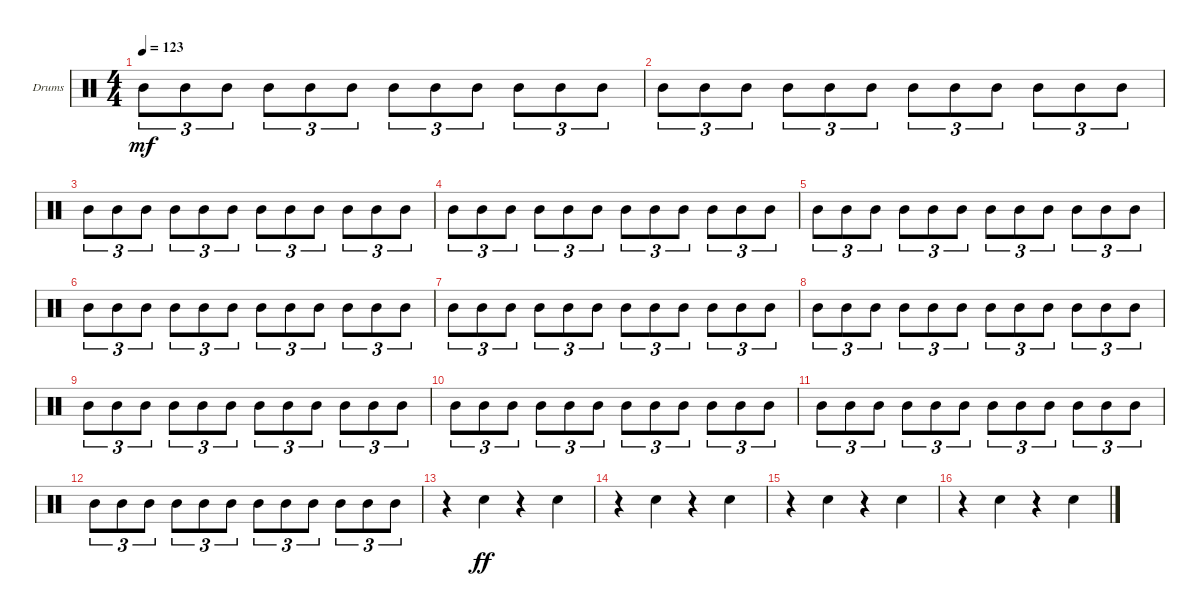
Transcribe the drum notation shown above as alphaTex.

\defaultSystemsLayout 4
\bracketExtendMode groupsimilarinstruments
\firstSystemTrackNameOrientation horizontal
\otherSystemsTrackNameOrientation horizontal
\track ("Drumkit" "Drums") {instrument percussion}
\staff {score}
\articulation defaults
\ts (4 4)
\tempo 123
\clef neutral
\scale
0.333333
\ks c "Mid Tom (hit)".8{tu (3 2) dy mf} "Mid Tom (hit)".8{tu (3 2)} "Mid Tom (hit)".8{tu (3 2)} "Mid Tom (hit)".8{tu (3 2)} "Mid Tom (hit)".8{tu (3 2)} "Mid Tom (hit)".8{tu (3 2)} "Mid Tom (hit)".8{tu (3 2)} "Mid Tom (hit)".8{tu (3 2)} "Mid Tom (hit)".8{tu (3 2)} "Mid Tom (hit)".8{tu (3 2)} "Mid Tom (hit)".8{tu (3 2)} "Mid Tom (hit)".8{tu (3 2)}
|
\scale
0.333333 "Mid Tom (hit)".8{tu (3 2)} "Mid Tom (hit)".8{tu (3 2)} "Mid Tom (hit)".8{tu (3 2)} "Mid Tom (hit)".8{tu (3 2)} "Mid Tom (hit)".8{tu (3 2)} "Mid Tom (hit)".8{tu (3 2)} "Mid Tom (hit)".8{tu (3 2)} "Mid Tom (hit)".8{tu (3 2)} "Mid Tom (hit)".8{tu (3 2)} "Mid Tom (hit)".8{tu (3 2)} "Mid Tom (hit)".8{tu (3 2)} "Mid Tom (hit)".8{tu (3 2)} |
\scale
0.333333 "Mid Tom (hit)".8{tu (3 2)} "Mid Tom (hit)".8{tu (3 2)} "Mid Tom (hit)".8{tu (3 2)} "Mid Tom (hit)".8{tu (3 2)} "Mid Tom (hit)".8{tu (3 2)} "Mid Tom (hit)".8{tu (3 2)} "Mid Tom (hit)".8{tu (3 2)} "Mid Tom (hit)".8{tu (3 2)} "Mid Tom (hit)".8{tu (3 2)} "Mid Tom (hit)".8{tu (3 2)} "Mid Tom (hit)".8{tu (3 2)} "Mid Tom (hit)".8{tu (3 2)} |
\scale
0.333333 "Mid Tom (hit)".8{tu (3 2)} "Mid Tom (hit)".8{tu (3 2)} "Mid Tom (hit)".8{tu (3 2)} "Mid Tom (hit)".8{tu (3 2)} "Mid Tom (hit)".8{tu (3 2)} "Mid Tom (hit)".8{tu (3 2)} "Mid Tom (hit)".8{tu (3 2)} "Mid Tom (hit)".8{tu (3 2)} "Mid Tom (hit)".8{tu (3 2)} "Mid Tom (hit)".8{tu (3 2)} "Mid Tom (hit)".8{tu (3 2)} "Mid Tom (hit)".8{tu (3 2)} |
\scale
0.333333 "Mid Tom (hit)".8{tu (3 2)} "Mid Tom (hit)".8{tu (3 2)} "Mid Tom (hit)".8{tu (3 2)} "Mid Tom (hit)".8{tu (3 2)} "Mid Tom (hit)".8{tu (3 2)} "Mid Tom (hit)".8{tu (3 2)} "Mid Tom (hit)".8{tu (3 2)} "Mid Tom (hit)".8{tu (3 2)} "Mid Tom (hit)".8{tu (3 2)} "Mid Tom (hit)".8{tu (3 2)} "Mid Tom (hit)".8{tu (3 2)} "Mid Tom (hit)".8{tu (3 2)} |
\scale
0.333333 "Mid Tom (hit)".8{tu (3 2)} "Mid Tom (hit)".8{tu (3 2)} "Mid Tom (hit)".8{tu (3 2)} "Mid Tom (hit)".8{tu (3 2)} "Mid Tom (hit)".8{tu (3 2)} "Mid Tom (hit)".8{tu (3 2)} "Mid Tom (hit)".8{tu (3 2)} "Mid Tom (hit)".8{tu (3 2)} "Mid Tom (hit)".8{tu (3 2)} "Mid Tom (hit)".8{tu (3 2)} "Mid Tom (hit)".8{tu (3 2)} "Mid Tom (hit)".8{tu (3 2)} |
\scale
0.333333 "Mid Tom (hit)".8{tu (3 2)} "Mid Tom (hit)".8{tu (3 2)} "Mid Tom (hit)".8{tu (3 2)} "Mid Tom (hit)".8{tu (3 2)} "Mid Tom (hit)".8{tu (3 2)} "Mid Tom (hit)".8{tu (3 2)} "Mid Tom (hit)".8{tu (3 2)} "Mid Tom (hit)".8{tu (3 2)} "Mid Tom (hit)".8{tu (3 2)} "Mid Tom (hit)".8{tu (3 2)} "Mid Tom (hit)".8{tu (3 2)} "Mid Tom (hit)".8{tu (3 2)} |
\scale
0.333333 "Mid Tom (hit)".8{tu (3 2)} "Mid Tom (hit)".8{tu (3 2)} "Mid Tom (hit)".8{tu (3 2)} "Mid Tom (hit)".8{tu (3 2)} "Mid Tom (hit)".8{tu (3 2)} "Mid Tom (hit)".8{tu (3 2)} "Mid Tom (hit)".8{tu (3 2)} "Mid Tom (hit)".8{tu (3 2)} "Mid Tom (hit)".8{tu (3 2)} "Mid Tom (hit)".8{tu (3 2)} "Mid Tom (hit)".8{tu (3 2)} "Mid Tom (hit)".8{tu (3 2)} |
\scale
0.333333 "Mid Tom (hit)".8{tu (3 2)} "Mid Tom (hit)".8{tu (3 2)} "Mid Tom (hit)".8{tu (3 2)} "Mid Tom (hit)".8{tu (3 2)} "Mid Tom (hit)".8{tu (3 2)} "Mid Tom (hit)".8{tu (3 2)} "Mid Tom (hit)".8{tu (3 2)} "Mid Tom (hit)".8{tu (3 2)} "Mid Tom (hit)".8{tu (3 2)} "Mid Tom (hit)".8{tu (3 2)} "Mid Tom (hit)".8{tu (3 2)} "Mid Tom (hit)".8{tu (3 2)} |
\scale
0.333333 "Mid Tom (hit)".8{tu (3 2)} "Mid Tom (hit)".8{tu (3 2)} "Mid Tom (hit)".8{tu (3 2)} "Mid Tom (hit)".8{tu (3 2)} "Mid Tom (hit)".8{tu (3 2)} "Mid Tom (hit)".8{tu (3 2)} "Mid Tom (hit)".8{tu (3 2)} "Mid Tom (hit)".8{tu (3 2)} "Mid Tom (hit)".8{tu (3 2)} "Mid Tom (hit)".8{tu (3 2)} "Mid Tom (hit)".8{tu (3 2)} "Mid Tom (hit)".8{tu (3 2)} |
\scale
0.333333 "Mid Tom (hit)".8{tu (3 2)} "Mid Tom (hit)".8{tu (3 2)} "Mid Tom (hit)".8{tu (3 2)} "Mid Tom (hit)".8{tu (3 2)} "Mid Tom (hit)".8{tu (3 2)} "Mid Tom (hit)".8{tu (3 2)} "Mid Tom (hit)".8{tu (3 2)} "Mid Tom (hit)".8{tu (3 2)} "Mid Tom (hit)".8{tu (3 2)} "Mid Tom (hit)".8{tu (3 2)} "Mid Tom (hit)".8{tu (3 2)} "Mid Tom (hit)".8{tu (3 2)} |
\scale
0.333333 "Mid Tom (hit)".8{tu (3 2)} "Mid Tom (hit)".8{tu (3 2)} "Mid Tom (hit)".8{tu (3 2)} "Mid Tom (hit)".8{tu (3 2)} "Mid Tom (hit)".8{tu (3 2)} "Mid Tom (hit)".8{tu (3 2)} "Mid Tom (hit)".8{tu (3 2)} "Mid Tom (hit)".8{tu (3 2)} "Mid Tom (hit)".8{tu (3 2)} "Mid Tom (hit)".8{tu (3 2)} "Mid Tom (hit)".8{tu (3 2)} "Mid Tom (hit)".8{tu (3 2)} |
\scale
0.333333 r.4 "Snare (hit) 2".4{dy ff} r.4 "Snare (hit) 2".4 |
\scale
0.333333 r.4 "Snare (hit) 2".4 r.4 "Snare (hit) 2".4 |
\scale
0.333333 r.4 "Snare (hit) 2".4 r.4 "Snare (hit) 2".4 |
\scale
0.333333 r.4 "Snare (hit) 2".4 r.4 "Snare (hit) 2".4
